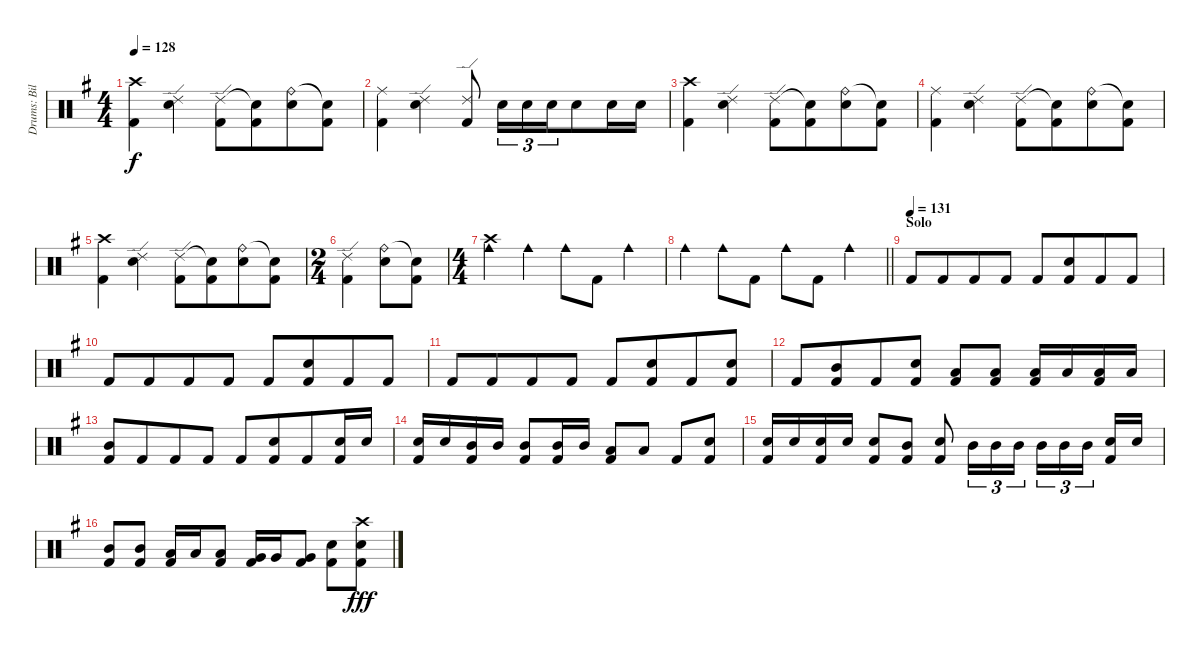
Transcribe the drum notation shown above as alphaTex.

\track ("Drums: Bill" "Drums: Bil") {instrument percussion}
\staff {score}
\articulation defaults
\ts (4 4)
\tempo 128
\clef neutral
\ks g
("Crash high (hit)" "Kick (hit) 2").4{dy f} ("Ride (edge) 2" "Snare (hit) 2").4{beam split} ("Ride (edge) 2" "Kick (hit) 2").8 ("Snare (hit)"{t} "Kick (hit) 2").8{beam merge} ("Ride (bell)" "Snare (hit) 2").8 ("Snare (hit)"{t} "Kick (hit) 2").8 |
("Ride (middle)" "Kick (hit) 2").4 ("Ride (edge) 2" "Snare (hit) 2").4{beam split} ("Ride (edge) 2" "Kick (hit) 2").8 "Snare (hit) 2".16{tu (3 2)} "Snare (hit) 2".16{tu (3 2)} "Snare (hit) 2".16{tu (3 2) beam merge} "Snare (hit) 2".8 "Snare (hit) 2".16 "Snare (hit) 2".16 |
("Crash high (hit)" "Kick (hit) 2").4 ("Ride (edge) 2" "Snare (hit) 2").4{beam split} ("Ride (edge) 2" "Kick (hit) 2").8 ("Snare (hit)"{t} "Kick (hit) 2").8{beam merge} ("Ride (bell)" "Snare (hit) 2").8 ("Snare (hit)"{t} "Kick (hit) 2").8 |
("Ride (middle)" "Kick (hit) 2").4 ("Ride (edge) 2" "Snare (hit) 2").4{beam split} ("Ride (edge) 2" "Kick (hit) 2").8 ("Snare (hit)"{t} "Kick (hit) 2").8{beam merge} ("Ride (bell)" "Snare (hit) 2").8 ("Snare (hit)"{t} "Kick (hit) 2").8 |
("Crash high (hit)" "Kick (hit) 2").4 ("Ride (edge) 2" "Snare (hit) 2").4{beam split} ("Ride (edge) 2" "Kick (hit) 2").8 ("Snare (hit)"{t} "Kick (hit) 2").8{beam merge} ("Ride (bell)" "Snare (hit) 2").8 ("Snare (hit)"{t} "Kick (hit) 2").8 |
\ts (2 4)
("Ride (edge) 2" "Kick (hit) 2").4{beam merge} ("Ride (bell)" "Snare (hit) 2").8 ("Snare (hit)"{t} "Kick (hit) 2").8 |
\ts (4 4)
("Crash high (hit)" "Cowbell medium (hit)").4 "Cowbell medium (hit)".4 "Cowbell medium (hit)".8 "Kick (hit) 2".8 "Cowbell medium (hit)".4 |
\barLineRight lightlight "Cowbell medium (hit)".4 "Cowbell medium (hit)".8 "Kick (hit) 2".8 "Cowbell medium (hit)".8 "Kick (hit) 2".8 "Cowbell medium (hit)".4
|
\section ("" "Solo")
\tempo (131)
"Kick (hit) 2".8 "Kick (hit) 2".8{beam merge} "Kick (hit) 2".8 "Kick (hit) 2".8 "Kick (hit) 2".8 ("Snare (hit) 2" "Kick (hit) 2").8{beam merge} "Kick (hit) 2".8 "Kick (hit) 2".8 |
"Kick (hit) 2".8 "Kick (hit) 2".8{beam merge} "Kick (hit) 2".8 "Kick (hit) 2".8 "Kick (hit) 2".8 ("Snare (hit) 2" "Kick (hit) 2").8{beam merge} "Kick (hit) 2".8 "Kick (hit) 2".8 |
"Kick (hit) 2".8 "Kick (hit) 2".8{beam merge} "Kick (hit) 2".8 "Kick (hit) 2".8 "Kick (hit) 2".8 ("Snare (hit) 2" "Kick (hit) 2").8{beam merge} "Kick (hit) 2".8 ("Snare (hit) 2" "Kick (hit) 2").8 |
"Kick (hit) 2".8 ("Mid Tom (hit)" "Kick (hit) 2").8{beam merge} "Kick (hit) 2".8 ("Snare (hit) 2" "Kick (hit) 2").8 ("Low Tom (hit)" "Kick (hit) 2").8 ("Low Tom (hit)" "Kick (hit) 2").8 ("Low Tom (hit)" "Kick (hit) 2").16 "Low Tom (hit)".16 ("Low Tom (hit)" "Kick (hit) 2").16 "Low Tom (hit)".16 |
("Mid Tom (hit)" "Kick (hit) 2").8 "Kick (hit) 2".8{beam merge} "Kick (hit) 2".8 "Kick (hit) 2".8 "Kick (hit) 2".8 ("Snare (hit) 2" "Kick (hit) 2").8{beam merge} "Kick (hit) 2".8 ("Snare (hit) 2" "Kick (hit) 2").16 "Snare (hit) 2".16 |
("Snare (hit) 2" "Kick (hit) 2").16 "Snare (hit) 2".16 ("Mid Tom (hit)" "Kick (hit) 2").16 "Mid Tom (hit)".16 ("Mid Tom (hit)" "Kick (hit) 2").8 ("Mid Tom (hit)" "Kick (hit) 2").16 "Mid Tom (hit)".16 ("Low Tom (hit)" "Kick (hit) 2").8 "Low Tom (hit)".8 "Kick (hit) 2".8 ("Snare (hit) 2" "Kick (hit) 2").8 |
("Snare (hit) 2" "Kick (hit) 2").16 "Snare (hit) 2".16 ("Snare (hit) 2" "Kick (hit) 2").16 "Snare (hit) 2".16 ("Snare (hit) 2" "Kick (hit) 2").8 ("Mid Tom (hit)" "Kick (hit) 2").8 ("Snare (hit) 2" "Kick (hit) 2").8 "Mid Tom (hit)".16{tu (3 2)} "Mid Tom (hit)".16{tu (3 2)} "Mid Tom (hit)".16{tu (3 2)} "Mid Tom (hit)".16{tu (3 2)} "Mid Tom (hit)".16{tu (3 2)} "Mid Tom (hit)".16{tu (3 2) beam splitsecondary} ("Snare (hit) 2" "Kick (hit) 2").16 "Snare (hit) 2".16 |
("Mid Tom (hit)" "Kick (hit) 2").8 ("Mid Tom (hit)" "Kick (hit) 2").8 ("Low Tom (hit)" "Kick (hit) 2").16 "Low Tom (hit)".16 ("Low Tom (hit)" "Kick (hit) 2").8 ("Very Low Tom (hit)" "Kick (hit) 2").16 "Very Low Tom (hit)".16 ("Very Low Tom (hit)" "Kick (hit) 2").8 ("Snare (hit) 2" "Kick (hit) 2").8 ("Crash high (hit)" "Snare (hit) 2" "Kick (hit) 2").8{dy fff}
